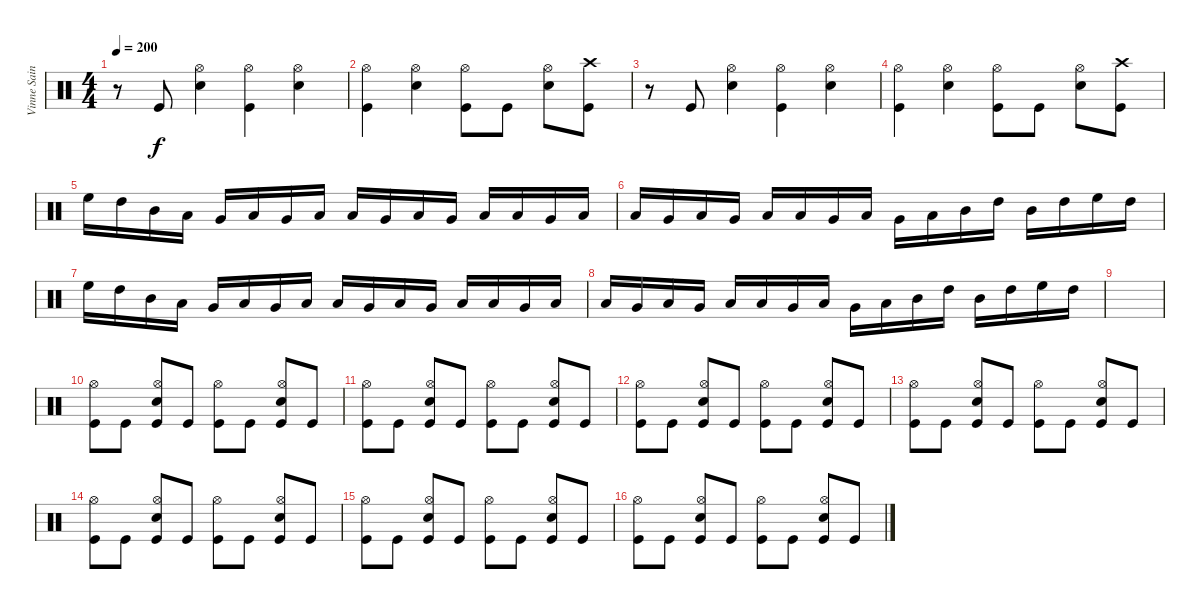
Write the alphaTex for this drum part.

\track ("Vinne Saint James" "Vinne Sain") {instrument percussion}
\staff {score}
\articulation defaults
\ts (4 4)
\tempo 200
\clef neutral
\ks c
r.8{dy f} "Kick (hit)".8 ("Hi-Hat (open)" "Electric Snare (hit)").4 ("Hi-Hat (open)" "Kick (hit)").4 ("Hi-Hat (open)" "Electric Snare (hit)").4 |
("Hi-Hat (open)" "Kick (hit)").4 ("Hi-Hat (open)" "Electric Snare (hit)").4 ("Hi-Hat (open)" "Kick (hit)").8 "Kick (hit)".8 ("Hi-Hat (open)" "Electric Snare (hit)").8 ("Crash high (hit)" "Kick (hit)").8 |
r.8 "Kick (hit)".8 ("Hi-Hat (open)" "Electric Snare (hit)").4 ("Hi-Hat (open)" "Kick (hit)").4 ("Hi-Hat (open)" "Electric Snare (hit)").4 |
("Hi-Hat (open)" "Kick (hit)").4 ("Hi-Hat (open)" "Electric Snare (hit)").4 ("Hi-Hat (open)" "Kick (hit)").8 "Kick (hit)".8 ("Hi-Hat (open)" "Electric Snare (hit)").8 ("Crash high (hit)" "Kick (hit)").8 |
"High Floor Tom (hit)".16 "High Tom (hit)".16 "Mid Tom (hit)".16 "Low Tom (hit)".16 "Very Low Tom (hit)".16 "Low Floor Tom (hit)".16 "Very Low Tom (hit)".16 "Low Floor Tom (hit)".16 "Low Tom (hit)".16 "Very Low Tom (hit)".16 "Low Floor Tom (hit)".16 "Very Low Tom (hit)".16 "Low Floor Tom (hit)".16 "Low Tom (hit)".16 "Very Low Tom (hit)".16 "Low Floor Tom (hit)".16 |
"Low Tom (hit)".16 "Very Low Tom (hit)".16 "Low Floor Tom (hit)".16 "Very Low Tom (hit)".16 "Low Floor Tom (hit)".16 "Low Tom (hit)".16 "Very Low Tom (hit)".16 "Low Floor Tom (hit)".16 "Very Low Tom (hit)".16 "Low Tom (hit)".16 "Mid Tom (hit)".16 "High Tom (hit)".16 "Mid Tom (hit)".16 "High Tom (hit)".16 "High Floor Tom (hit)".16 "High Tom (hit)".16 |
"High Floor Tom (hit)".16 "High Tom (hit)".16 "Mid Tom (hit)".16 "Low Tom (hit)".16 "Very Low Tom (hit)".16 "Low Floor Tom (hit)".16 "Very Low Tom (hit)".16 "Low Floor Tom (hit)".16 "Low Tom (hit)".16 "Very Low Tom (hit)".16 "Low Floor Tom (hit)".16 "Very Low Tom (hit)".16 "Low Floor Tom (hit)".16 "Low Tom (hit)".16 "Very Low Tom (hit)".16 "Low Floor Tom (hit)".16 |
"Low Tom (hit)".16 "Very Low Tom (hit)".16 "Low Floor Tom (hit)".16 "Very Low Tom (hit)".16 "Low Floor Tom (hit)".16 "Low Tom (hit)".16 "Very Low Tom (hit)".16 "Low Floor Tom (hit)".16 "Very Low Tom (hit)".16 "Low Tom (hit)".16 "Mid Tom (hit)".16 "High Tom (hit)".16 "Mid Tom (hit)".16 "High Tom (hit)".16 "High Floor Tom (hit)".16 "High Tom (hit)".16 |
|
("Hi-Hat (open)" "Kick (hit)").8 "Kick (hit)".8 ("Hi-Hat (open)" "Electric Snare (hit)" "Kick (hit)").8 "Kick (hit)".8 ("Hi-Hat (open)" "Kick (hit)").8 "Kick (hit)".8 ("Hi-Hat (open)" "Electric Snare (hit)" "Kick (hit)").8 "Kick (hit)".8 |
("Hi-Hat (open)" "Kick (hit)").8 "Kick (hit)".8 ("Hi-Hat (open)" "Electric Snare (hit)" "Kick (hit)").8 "Kick (hit)".8 ("Hi-Hat (open)" "Kick (hit)").8 "Kick (hit)".8 ("Hi-Hat (open)" "Electric Snare (hit)" "Kick (hit)").8 "Kick (hit)".8 |
("Hi-Hat (open)" "Kick (hit)").8 "Kick (hit)".8 ("Hi-Hat (open)" "Electric Snare (hit)" "Kick (hit)").8 "Kick (hit)".8 ("Hi-Hat (open)" "Kick (hit)").8 "Kick (hit)".8 ("Hi-Hat (open)" "Electric Snare (hit)" "Kick (hit)").8 "Kick (hit)".8 |
("Hi-Hat (open)" "Kick (hit)").8 "Kick (hit)".8 ("Hi-Hat (open)" "Electric Snare (hit)" "Kick (hit)").8 "Kick (hit)".8 ("Hi-Hat (open)" "Kick (hit)").8 "Kick (hit)".8 ("Hi-Hat (open)" "Electric Snare (hit)" "Kick (hit)").8 "Kick (hit)".8 |
("Hi-Hat (open)" "Kick (hit)").8 "Kick (hit)".8 ("Hi-Hat (open)" "Electric Snare (hit)" "Kick (hit)").8 "Kick (hit)".8 ("Hi-Hat (open)" "Kick (hit)").8 "Kick (hit)".8 ("Hi-Hat (open)" "Electric Snare (hit)" "Kick (hit)").8 "Kick (hit)".8 |
("Hi-Hat (open)" "Kick (hit)").8 "Kick (hit)".8 ("Hi-Hat (open)" "Electric Snare (hit)" "Kick (hit)").8 "Kick (hit)".8 ("Hi-Hat (open)" "Kick (hit)").8 "Kick (hit)".8 ("Hi-Hat (open)" "Electric Snare (hit)" "Kick (hit)").8 "Kick (hit)".8 |
("Hi-Hat (open)" "Kick (hit)").8 "Kick (hit)".8 ("Hi-Hat (open)" "Electric Snare (hit)" "Kick (hit)").8 "Kick (hit)".8 ("Hi-Hat (open)" "Kick (hit)").8 "Kick (hit)".8 ("Hi-Hat (open)" "Electric Snare (hit)" "Kick (hit)").8 "Kick (hit)".8
